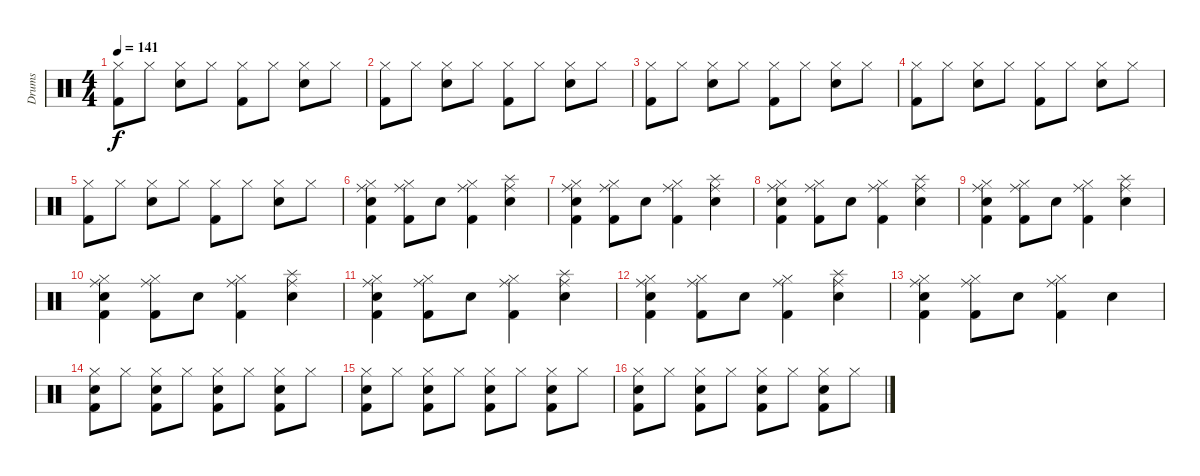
\track ("Drums" "Drums") {instrument percussion}
\staff {score}
\articulation defaults
\ts (4 4)
\tempo 141
\clef neutral
\ks c
("Hi-Hat (closed)" "Kick (hit) 2").8{dy f} "Hi-Hat (closed)".8 ("Hi-Hat (closed)" "Snare (hit) 2").8 "Hi-Hat (closed)".8 ("Hi-Hat (closed)" "Kick (hit) 2").8 "Hi-Hat (closed)".8 ("Hi-Hat (closed)" "Snare (hit) 2").8 "Hi-Hat (closed)".8 |
("Hi-Hat (closed)" "Kick (hit) 2").8 "Hi-Hat (closed)".8 ("Hi-Hat (closed)" "Snare (hit) 2").8 "Hi-Hat (closed)".8 ("Hi-Hat (closed)" "Kick (hit) 2").8 "Hi-Hat (closed)".8 ("Hi-Hat (closed)" "Snare (hit) 2").8 "Hi-Hat (closed)".8 |
("Hi-Hat (closed)" "Kick (hit) 2").8 "Hi-Hat (closed)".8 ("Hi-Hat (closed)" "Snare (hit) 2").8 "Hi-Hat (closed)".8 ("Hi-Hat (closed)" "Kick (hit) 2").8 "Hi-Hat (closed)".8 ("Hi-Hat (closed)" "Snare (hit) 2").8 "Hi-Hat (closed)".8 |
("Hi-Hat (closed)" "Kick (hit) 2").8 "Hi-Hat (closed)".8 ("Hi-Hat (closed)" "Snare (hit) 2").8 "Hi-Hat (closed)".8 ("Hi-Hat (closed)" "Kick (hit) 2").8 "Hi-Hat (closed)".8 ("Hi-Hat (closed)" "Snare (hit) 2").8 "Hi-Hat (closed)".8 |
("Hi-Hat (closed)" "Kick (hit) 2").8 "Hi-Hat (closed)".8 ("Hi-Hat (closed)" "Snare (hit) 2").8 "Hi-Hat (closed)".8 ("Hi-Hat (closed)" "Kick (hit) 2").8 "Hi-Hat (closed)".8 ("Hi-Hat (closed)" "Snare (hit) 2").8 "Hi-Hat (closed)".8 |
("Hi-Hat (closed)" "Ride (middle)" "Electric Snare (hit)" "Kick (hit) 2").4 ("Hi-Hat (closed)" "Ride (middle)" "Kick (hit) 2").8 "Electric Snare (hit)".8 ("Hi-Hat (closed)" "Ride (middle)" "Kick (hit) 2").4 ("Splash (hit)" "Ride (middle)" "Electric Snare (hit)").4 |
("Hi-Hat (closed)" "Ride (middle)" "Electric Snare (hit)" "Kick (hit) 2").4 ("Hi-Hat (closed)" "Ride (middle)" "Kick (hit) 2").8 "Electric Snare (hit)".8 ("Hi-Hat (closed)" "Ride (middle)" "Kick (hit) 2").4 ("Splash (hit)" "Ride (middle)" "Electric Snare (hit)").4 |
("Hi-Hat (closed)" "Ride (middle)" "Electric Snare (hit)" "Kick (hit) 2").4 ("Hi-Hat (closed)" "Ride (middle)" "Kick (hit) 2").8 "Electric Snare (hit)".8 ("Hi-Hat (closed)" "Ride (middle)" "Kick (hit) 2").4 ("Splash (hit)" "Ride (middle)" "Electric Snare (hit)").4 |
("Hi-Hat (closed)" "Ride (middle)" "Electric Snare (hit)" "Kick (hit) 2").4 ("Hi-Hat (closed)" "Ride (middle)" "Kick (hit) 2").8 "Electric Snare (hit)".8 ("Hi-Hat (closed)" "Ride (middle)" "Kick (hit) 2").4 ("Splash (hit)" "Ride (middle)" "Electric Snare (hit)").4 |
("Hi-Hat (closed)" "Ride (middle)" "Electric Snare (hit)" "Kick (hit) 2").4 ("Hi-Hat (closed)" "Ride (middle)" "Kick (hit) 2").8 "Electric Snare (hit)".8 ("Hi-Hat (closed)" "Ride (middle)" "Kick (hit) 2").4 ("Splash (hit)" "Ride (middle)" "Electric Snare (hit)").4 |
("Hi-Hat (closed)" "Ride (middle)" "Electric Snare (hit)" "Kick (hit) 2").4 ("Hi-Hat (closed)" "Ride (middle)" "Kick (hit) 2").8 "Electric Snare (hit)".8 ("Hi-Hat (closed)" "Ride (middle)" "Kick (hit) 2").4 ("Splash (hit)" "Ride (middle)" "Electric Snare (hit)").4 |
("Hi-Hat (closed)" "Ride (middle)" "Electric Snare (hit)" "Kick (hit) 2").4 ("Hi-Hat (closed)" "Ride (middle)" "Kick (hit) 2").8 "Electric Snare (hit)".8 ("Hi-Hat (closed)" "Ride (middle)" "Kick (hit) 2").4 ("Splash (hit)" "Ride (middle)" "Electric Snare (hit)").4 |
("Hi-Hat (closed)" "Ride (middle)" "Electric Snare (hit)" "Kick (hit) 2").4 ("Hi-Hat (closed)" "Ride (middle)" "Kick (hit) 2").8 "Electric Snare (hit)".8 ("Hi-Hat (closed)" "Ride (middle)" "Kick (hit) 2").4 "Electric Snare (hit)".4 |
("Hi-Hat (closed)" "Electric Snare (hit)" "Kick (hit) 2").8 "Hi-Hat (closed)".8 ("Hi-Hat (closed)" "Electric Snare (hit)" "Kick (hit) 2").8 "Hi-Hat (closed)".8 ("Hi-Hat (closed)" "Electric Snare (hit)" "Kick (hit) 2").8 "Hi-Hat (closed)".8 ("Hi-Hat (closed)" "Electric Snare (hit)" "Kick (hit) 2").8 "Hi-Hat (closed)".8 |
("Hi-Hat (closed)" "Electric Snare (hit)" "Kick (hit) 2").8 "Hi-Hat (closed)".8 ("Hi-Hat (closed)" "Electric Snare (hit)" "Kick (hit) 2").8 "Hi-Hat (closed)".8 ("Hi-Hat (closed)" "Electric Snare (hit)" "Kick (hit) 2").8 "Hi-Hat (closed)".8 ("Hi-Hat (closed)" "Electric Snare (hit)" "Kick (hit) 2").8 "Hi-Hat (closed)".8 |
("Hi-Hat (closed)" "Electric Snare (hit)" "Kick (hit) 2").8 "Hi-Hat (closed)".8 ("Hi-Hat (closed)" "Electric Snare (hit)" "Kick (hit) 2").8 "Hi-Hat (closed)".8 ("Hi-Hat (closed)" "Electric Snare (hit)" "Kick (hit) 2").8 "Hi-Hat (closed)".8 ("Hi-Hat (closed)" "Electric Snare (hit)" "Kick (hit) 2").8 "Hi-Hat (closed)".8
